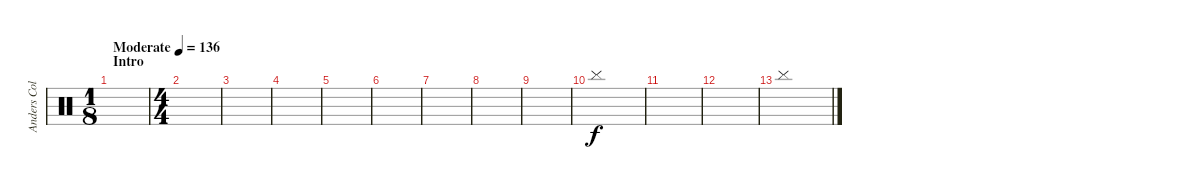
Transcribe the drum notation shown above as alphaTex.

\track ("Anders Colsefini" "Anders Col") {instrument percussion}
\staff {score}
\articulation defaults
\ts (1 8)
\section ("" "Intro")
\tempo (136 "Moderate")
\clef neutral
\ks c
|
\ts (4 4)
|
|
|
|
|
|
|
|
"Cymbal (hit)".1 |
|
|
"Cymbal (hit)".1
